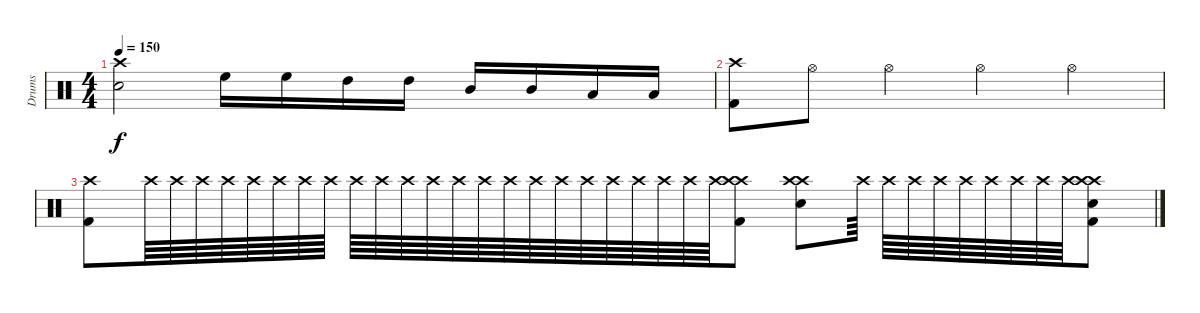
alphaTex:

\track ("Drums" "Drums") {instrument percussion}
\staff {score}
\articulation defaults
\ts (4 4)
\tempo 150
\clef neutral
\ks c
("Crash high (hit)" "Electric Snare (hit)").2{dy f} "High Floor Tom (hit)".16 "High Floor Tom (hit)".16 "High Tom (hit)".16 "High Tom (hit)".16 "Mid Tom (hit)".16 "Mid Tom (hit)".16 "Low Tom (hit)".16 "Low Tom (hit)".16 |
("Crash high (hit)" "Kick (hit) 2").8 "Hi-Hat (open)".8 "Hi-Hat (open)".4 "Hi-Hat (open)".4 "Hi-Hat (open)".4 |
("Crash high (hit)" "Kick (hit) 2").8 "Crash high (hit)".64 "Crash high (hit)".64 "Crash high (hit)".64 "Crash high (hit)".64 "Crash high (hit)".64 "Crash high (hit)".64 "Crash high (hit)".64 "Crash high (hit)".64 "Crash high (hit)".64 "Crash high (hit)".64 "Crash high (hit)".64 "Crash high (hit)".64 "Crash high (hit)".64 "Crash high (hit)".64 "Crash high (hit)".64 "Crash high (hit)".64 "Crash high (hit)".64 "Crash high (hit)".64 "Crash high (hit)".64 "Crash high (hit)".64 "Crash high (hit)".64 "Crash high (hit)".64 "Crash high (hit)".64 ("Crash high (hit)" "Crash high (hit)" "Kick (hit) 2").8 ("Crash high (hit)" "Crash high (hit)" "Electric Snare (hit)").8 "Crash high (hit)".64 "Crash high (hit)".64 "Crash high (hit)".64 "Crash high (hit)".64 "Crash high (hit)".64 "Crash high (hit)".64 "Crash high (hit)".64 "Crash high (hit)".64 "Crash high (hit)".64 ("Crash high (hit)" "Crash high (hit)" "Electric Snare (hit)" "Kick (hit) 2").8
